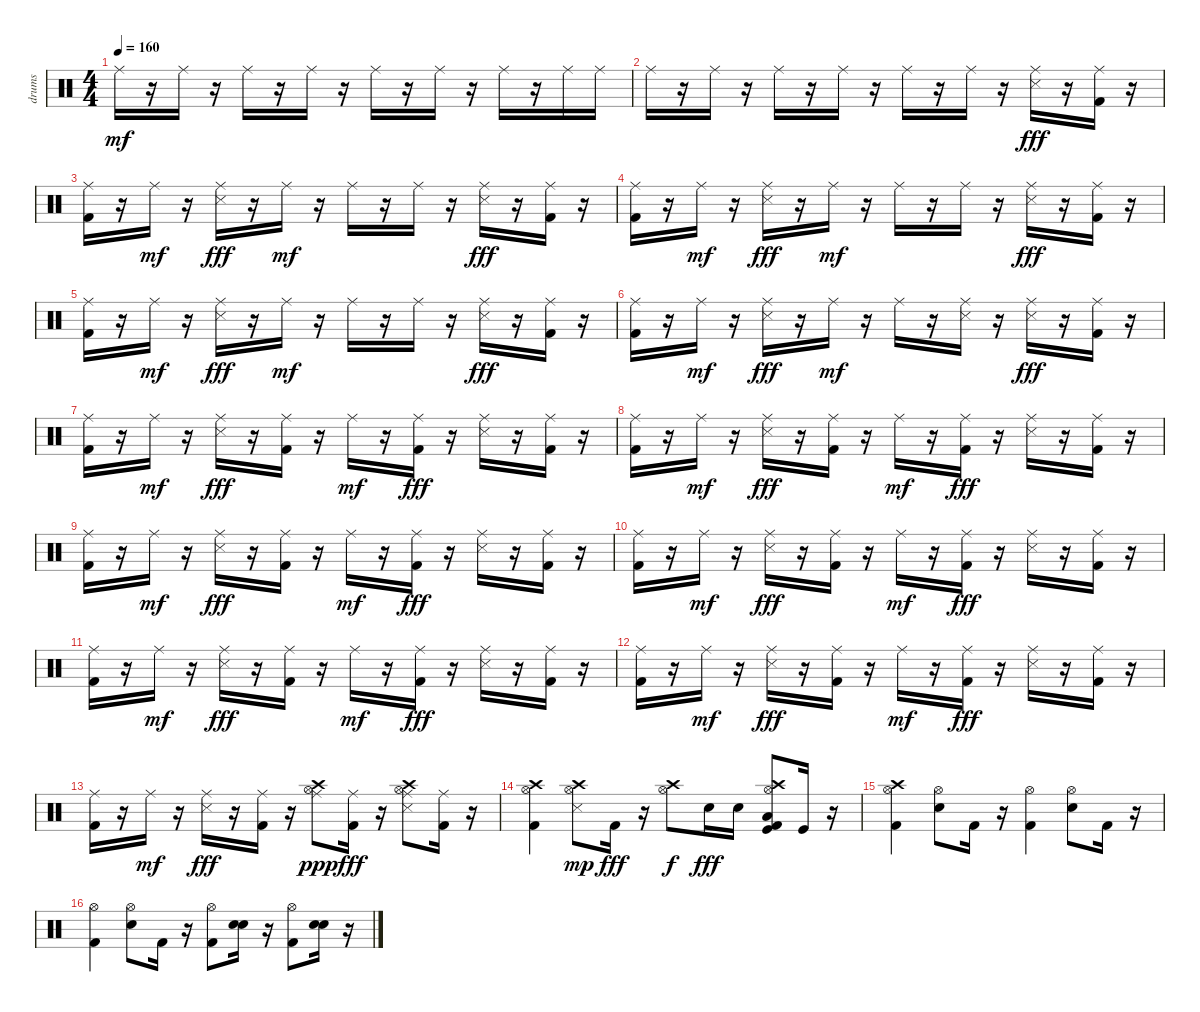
\track ("drums" "drums") {instrument percussion}
\staff {score}
\articulation defaults
\ts (4 4)
\tempo 160
\clef neutral
\ks c "Ride (middle)".16{dy mf}
r.16 "Ride (middle)".16 r.16 "Ride (middle)".16 r.16 "Ride (middle)".16 r.16 "Ride (middle)".16 r.16 "Ride (middle)".16 r.16 "Ride (middle)".16 r.16 "Ride (middle)".16 "Ride (middle)".16 |
"Ride (middle)".16 r.16 "Ride (middle)".16 r.16 "Ride (middle)".16 r.16 "Ride (middle)".16 r.16 "Ride (middle)".16 r.16 "Ride (middle)".16 r.16 ("Ride (middle)" "Snare (side stick) 3").16{dy fff} r.16 ("Ride (middle)" "Kick (hit) 2").16 r.16 |
("Ride (middle)" "Kick (hit) 2").16 r.16 "Ride (middle)".16{dy mf} r.16 ("Ride (middle)" "Snare (side stick) 3").16{dy fff} r.16 "Ride (middle)".16{dy mf} r.16 "Ride (middle)".16 r.16 "Ride (middle)".16 r.16 ("Ride (middle)" "Snare (side stick) 3").16{dy fff} r.16 ("Ride (middle)" "Kick (hit) 2").16 r.16 |
("Ride (middle)" "Kick (hit) 2").16 r.16 "Ride (middle)".16{dy mf} r.16 ("Ride (middle)" "Snare (side stick) 3").16{dy fff} r.16 "Ride (middle)".16{dy mf} r.16 "Ride (middle)".16 r.16 "Ride (middle)".16 r.16 ("Ride (middle)" "Snare (side stick) 3").16{dy fff} r.16 ("Ride (middle)" "Kick (hit) 2").16 r.16 |
("Ride (middle)" "Kick (hit) 2").16 r.16 "Ride (middle)".16{dy mf} r.16 ("Ride (middle)" "Snare (side stick) 3").16{dy fff} r.16 "Ride (middle)".16{dy mf} r.16 "Ride (middle)".16 r.16 "Ride (middle)".16 r.16 ("Ride (middle)" "Snare (side stick) 3").16{dy fff} r.16 ("Ride (middle)" "Kick (hit) 2").16 r.16 |
("Ride (middle)" "Kick (hit) 2").16 r.16 "Ride (middle)".16{dy mf} r.16 ("Ride (middle)" "Snare (side stick) 3").16{dy fff} r.16 "Ride (middle)".16{dy mf} r.16 "Ride (middle)".16 r.16 ("Ride (middle)" "Snare (side stick) 3").16 r.16 ("Ride (middle)" "Snare (side stick) 3").16{dy fff} r.16 ("Ride (middle)" "Kick (hit) 2").16 r.16 |
("Ride (middle)" "Kick (hit) 2").16 r.16 "Ride (middle)".16{dy mf} r.16 ("Ride (middle)" "Snare (side stick) 3").16{dy fff} r.16 ("Ride (middle)" "Kick (hit) 2").16 r.16 "Ride (middle)".16{dy mf} r.16 ("Ride (middle)" "Kick (hit) 2").16{dy fff} r.16 ("Ride (middle)" "Snare (side stick) 3").16 r.16 ("Ride (middle)" "Kick (hit) 2").16 r.16 |
("Ride (middle)" "Kick (hit) 2").16 r.16 "Ride (middle)".16{dy mf} r.16 ("Ride (middle)" "Snare (side stick) 3").16{dy fff} r.16 ("Ride (middle)" "Kick (hit) 2").16 r.16 "Ride (middle)".16{dy mf} r.16 ("Ride (middle)" "Kick (hit) 2").16{dy fff} r.16 ("Ride (middle)" "Snare (side stick) 3").16 r.16 ("Ride (middle)" "Kick (hit) 2").16 r.16 |
("Ride (middle)" "Kick (hit) 2").16 r.16 "Ride (middle)".16{dy mf} r.16 ("Ride (middle)" "Snare (side stick) 3").16{dy fff} r.16 ("Ride (middle)" "Kick (hit) 2").16 r.16 "Ride (middle)".16{dy mf} r.16 ("Ride (middle)" "Kick (hit) 2").16{dy fff} r.16 ("Ride (middle)" "Snare (side stick) 3").16 r.16 ("Ride (middle)" "Kick (hit) 2").16 r.16 |
("Ride (middle)" "Kick (hit) 2").16 r.16 "Ride (middle)".16{dy mf} r.16 ("Ride (middle)" "Snare (side stick) 3").16{dy fff} r.16 ("Ride (middle)" "Kick (hit) 2").16 r.16 "Ride (middle)".16{dy mf} r.16 ("Ride (middle)" "Kick (hit) 2").16{dy fff} r.16 ("Ride (middle)" "Snare (side stick) 3").16 r.16 ("Ride (middle)" "Kick (hit) 2").16 r.16 |
("Ride (middle)" "Kick (hit) 2").16 r.16 "Ride (middle)".16{dy mf} r.16 ("Ride (middle)" "Snare (side stick) 3").16{dy fff} r.16 ("Ride (middle)" "Kick (hit) 2").16 r.16 "Ride (middle)".16{dy mf} r.16 ("Ride (middle)" "Kick (hit) 2").16{dy fff} r.16 ("Ride (middle)" "Snare (side stick) 3").16 r.16 ("Ride (middle)" "Kick (hit) 2").16 r.16 |
("Ride (middle)" "Kick (hit) 2").16 r.16 "Ride (middle)".16{dy mf} r.16 ("Ride (middle)" "Snare (side stick) 3").16{dy fff} r.16 ("Ride (middle)" "Kick (hit) 2").16 r.16 "Ride (middle)".16{dy mf} r.16 ("Ride (middle)" "Kick (hit) 2").16{dy fff} r.16 ("Ride (middle)" "Snare (side stick) 3").16 r.16 ("Ride (middle)" "Kick (hit) 2").16 r.16 |
("Ride (middle)" "Kick (hit) 2").16 r.16 "Ride (middle)".16{dy mf} r.16 ("Ride (middle)" "Snare (side stick) 3").16{dy fff} r.16 ("Ride (middle)" "Kick (hit) 2").16 r.16 ("Ride (middle)" "Crash high (hit)" "Hi-Hat (open)").8{dy ppp} ("Ride (middle)" "Kick (hit) 2").16{dy fff} r.16 ("Ride (middle)" "Crash high (hit)" "Hi-Hat (open)" "Snare (side stick) 3").8 ("Ride (middle)" "Kick (hit) 2").16 r.16 |
("Crash high (hit)" "Hi-Hat (open)" "Kick (hit) 2").4 ("Crash high (hit)" "Hi-Hat (open)" "Snare (side stick) 3").8{dy mp} "Kick (hit) 2".16{dy fff} r.16 ("Crash high (hit)" "Hi-Hat (open)").8{dy f} "Snare (hit) 2".16{dy fff} "Snare (hit) 2".16 ("Crash high (hit)" "Hi-Hat (open)" "Low Floor Tom (hit)" "Kick (hit) 2" "Kick (hit)").8 "Kick (hit)".16 r.16 |
("Kick (hit) 2" "Crash high (hit)" "Hi-Hat (open)").4 ("Electric Snare (hit)" "Hi-Hat (open)").8 "Kick (hit) 2".16 r.16 ("Kick (hit) 2" "Hi-Hat (open)").4 ("Electric Snare (hit)" "Hi-Hat (open)").8 "Kick (hit) 2".16 r.16 |
("Kick (hit) 2" "Hi-Hat (open)").4 ("Electric Snare (hit)" "Hi-Hat (open)").8 "Kick (hit) 2".16 r.16 ("Kick (hit) 2" "Hi-Hat (open)").8 ("Electric Snare (hit)" "Snare (hit) 2").16 r.16 ("Kick (hit) 2" "Hi-Hat (open)").8 ("Electric Snare (hit)" "Snare (hit) 2").16 r.16
